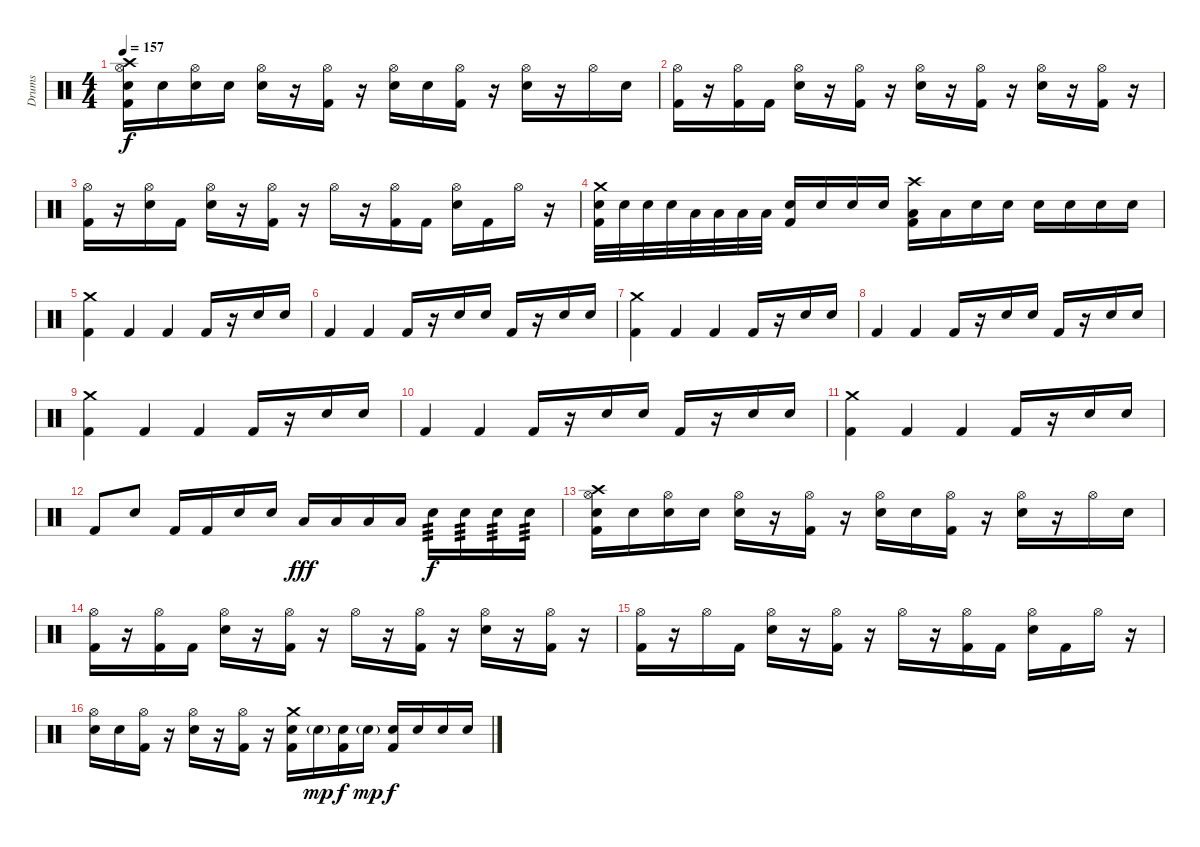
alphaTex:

\track ("Drums" "Drums") {instrument percussion}
\staff {score}
\articulation defaults
\ts (4 4)
\tempo 157
\clef neutral
\ks c
("Hi-Hat (open)" "Crash high (hit)" "Electric Snare (hit)" "Kick (hit) 2").16{dy f} "Electric Snare (hit)".16 ("Hi-Hat (open)" "Electric Snare (hit)").16 "Electric Snare (hit)".16 ("Hi-Hat (open)" "Electric Snare (hit)").16 r.16 ("Hi-Hat (open)" "Kick (hit) 2").16 r.16 ("Hi-Hat (open)" "Electric Snare (hit)").16 "Electric Snare (hit)".16 ("Hi-Hat (open)" "Kick (hit) 2").16 r.16 ("Hi-Hat (open)" "Electric Snare (hit)").16 r.16 "Hi-Hat (open)".16 "Electric Snare (hit)".16 |
("Hi-Hat (open)" "Kick (hit) 2").16 r.16 ("Hi-Hat (open)" "Kick (hit) 2").16 "Kick (hit) 2".16 ("Hi-Hat (open)" "Electric Snare (hit)").16 r.16 ("Hi-Hat (open)" "Kick (hit) 2").16 r.16 ("Hi-Hat (open)" "Electric Snare (hit)").16 r.16 ("Hi-Hat (open)" "Kick (hit) 2").16 r.16 ("Hi-Hat (open)" "Electric Snare (hit)").16 r.16 ("Hi-Hat (open)" "Kick (hit) 2").16 r.16 |
("Hi-Hat (open)" "Kick (hit) 2").16 r.16 ("Hi-Hat (open)" "Electric Snare (hit)").16 "Kick (hit) 2".16 ("Hi-Hat (open)" "Electric Snare (hit)").16 r.16 ("Hi-Hat (open)" "Kick (hit) 2").16 r.16 "Hi-Hat (open)".16 r.16 ("Hi-Hat (open)" "Kick (hit) 2").16 "Kick (hit) 2".16 ("Hi-Hat (open)" "Electric Snare (hit)").16 "Kick (hit) 2".16 "Hi-Hat (open)".16 r.16 |
("Crash medium (hit)" "Electric Snare (hit)" "Kick (hit) 2").32 "Electric Snare (hit)".32 "Electric Snare (hit)".32 "Electric Snare (hit)".32 "Low Tom (hit)".32 "Low Tom (hit)".32 "Low Tom (hit)".32 "Low Tom (hit)".32 ("Electric Snare (hit)" "Kick (hit) 2").16 "Electric Snare (hit)".16 "Electric Snare (hit)".16 "Electric Snare (hit)".16 ("Crash high (hit)" "Low Tom (hit)" "Kick (hit) 2").16 "Low Tom (hit)".16 "Electric Snare (hit)".16 "Electric Snare (hit)".16 "Electric Snare (hit)".16 "Electric Snare (hit)".16 "Electric Snare (hit)".16 "Electric Snare (hit)".16 |
("Crash medium (hit)" "Kick (hit) 2").4 "Kick (hit) 2".4 "Kick (hit) 2".4 "Kick (hit) 2".16 r.16 "Electric Snare (hit)".16 "Electric Snare (hit)".16 |
"Kick (hit) 2".4 "Kick (hit) 2".4 "Kick (hit) 2".16 r.16 "Electric Snare (hit)".16 "Electric Snare (hit)".16 "Kick (hit) 2".16 r.16 "Electric Snare (hit)".16 "Electric Snare (hit)".16 |
("Crash medium (hit)" "Kick (hit) 2").4 "Kick (hit) 2".4 "Kick (hit) 2".4 "Kick (hit) 2".16 r.16 "Electric Snare (hit)".16 "Electric Snare (hit)".16 |
"Kick (hit) 2".4 "Kick (hit) 2".4 "Kick (hit) 2".16 r.16 "Electric Snare (hit)".16 "Electric Snare (hit)".16 "Kick (hit) 2".16 r.16 "Electric Snare (hit)".16 "Electric Snare (hit)".16 |
("Crash medium (hit)" "Kick (hit) 2").4 "Kick (hit) 2".4 "Kick (hit) 2".4 "Kick (hit) 2".16 r.16 "Electric Snare (hit)".16 "Electric Snare (hit)".16 |
"Kick (hit) 2".4 "Kick (hit) 2".4 "Kick (hit) 2".16 r.16 "Electric Snare (hit)".16 "Electric Snare (hit)".16 "Kick (hit) 2".16 r.16 "Electric Snare (hit)".16 "Electric Snare (hit)".16 |
("Crash medium (hit)" "Kick (hit) 2").4 "Kick (hit) 2".4 "Kick (hit) 2".4 "Kick (hit) 2".16 r.16 "Electric Snare (hit)".16 "Electric Snare (hit)".16 |
"Kick (hit) 2".8 "Electric Snare (hit)".8 "Kick (hit) 2".16 "Kick (hit) 2".16 "Electric Snare (hit)".16 "Electric Snare (hit)".16 "Low Tom (hit)".16{dy fff} "Low Tom (hit)".16 "Low Tom (hit)".16 "Low Tom (hit)".16 "Electric Snare (hit)".16{tp 3 dy f} "Electric Snare (hit)".16{tp 3} "Electric Snare (hit)".16{tp 3} "Electric Snare (hit)".16{tp 3} |
("Hi-Hat (open)" "Crash high (hit)" "Electric Snare (hit)" "Kick (hit) 2").16 "Electric Snare (hit)".16 ("Hi-Hat (open)" "Electric Snare (hit)").16 "Electric Snare (hit)".16 ("Hi-Hat (open)" "Electric Snare (hit)").16 r.16 ("Hi-Hat (open)" "Kick (hit) 2").16 r.16 ("Hi-Hat (open)" "Electric Snare (hit)").16 "Electric Snare (hit)".16 ("Hi-Hat (open)" "Kick (hit) 2").16 r.16 ("Hi-Hat (open)" "Electric Snare (hit)").16 r.16 "Hi-Hat (open)".16 "Electric Snare (hit)".16 |
("Hi-Hat (open)" "Kick (hit) 2").16 r.16 ("Hi-Hat (open)" "Kick (hit) 2").16 "Kick (hit) 2".16 ("Hi-Hat (open)" "Electric Snare (hit)").16 r.16 ("Hi-Hat (open)" "Kick (hit) 2").16 r.16 "Hi-Hat (open)".16 r.16 ("Hi-Hat (open)" "Kick (hit) 2").16 r.16 ("Hi-Hat (open)" "Electric Snare (hit)").16 r.16 ("Hi-Hat (open)" "Kick (hit) 2").16 r.16 |
("Hi-Hat (open)" "Kick (hit) 2").16 r.16 "Hi-Hat (open)".16 "Kick (hit) 2".16 ("Hi-Hat (open)" "Electric Snare (hit)").16 r.16 ("Hi-Hat (open)" "Kick (hit) 2").16 r.16 "Hi-Hat (open)".16 r.16 ("Hi-Hat (open)" "Kick (hit) 2").16 "Kick (hit) 2".16 ("Hi-Hat (open)" "Electric Snare (hit)").16 "Kick (hit) 2".16 "Hi-Hat (open)".16 r.16 |
("Hi-Hat (open)" "Electric Snare (hit)").16 "Electric Snare (hit)".16 ("Hi-Hat (open)" "Kick (hit) 2").16 r.16 ("Hi-Hat (open)" "Electric Snare (hit)").16 r.16 ("Hi-Hat (open)" "Kick (hit) 2").16 r.16 ("Crash medium (hit)" "Electric Snare (hit)" "Kick (hit) 2").16 "Electric Snare (hit)"{g}.16{dy mp} ("Electric Snare (hit)" "Kick (hit) 2").16{dy f} "Electric Snare (hit)"{g}.16{dy mp} ("Electric Snare (hit)" "Kick (hit) 2").16{dy f} "Electric Snare (hit)".16 "Electric Snare (hit)".16 "Electric Snare (hit)".16
